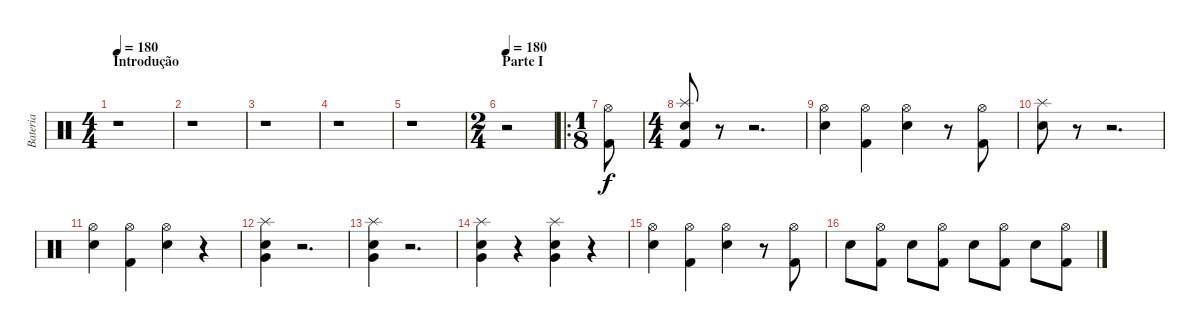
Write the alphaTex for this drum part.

\track ("Bateria" "Bateria") {instrument percussion}
\staff {score}
\articulation defaults
\ts (4 4)
\section ("" "Introdução")
\tempo 180
\tempo 90
\tempo 180
\clef neutral
\ks c
r.1{dy f} |
r.1 |
r.1 |
r.1 |
r.1 |
\ts (2 4)
\section ("" "Parte I")
\tempo 180
r.2 |
\ro
\ts (1 8)
("Hi-Hat (open)" "Kick (hit) 2").8 |
\ts (4 4)
("Splash (hit)" "Electric Snare (hit)" "Kick (hit) 2").8 r.8 r.2{d} |
("Hi-Hat (open)" "Electric Snare (hit)").4 ("Hi-Hat (open)" "Kick (hit) 2").4 ("Hi-Hat (open)" "Electric Snare (hit)").4 r.8 ("Hi-Hat (open)" "Kick (hit) 2").8 |
("Splash (hit)" "Electric Snare (hit)").8 r.8 r.2{d} |
("Hi-Hat (open)" "Electric Snare (hit)").4 ("Hi-Hat (open)" "Kick (hit) 2").4 ("Hi-Hat (open)" "Electric Snare (hit)").4 r.4 |
("Splash (hit)" "Electric Snare (hit)" "Very Low Tom (hit)").4 r.2{d} |
("Splash (hit)" "Electric Snare (hit)" "Very Low Tom (hit)").4 r.2{d} |
("Splash (hit)" "Electric Snare (hit)" "Very Low Tom (hit)").4 r.4 ("Splash (hit)" "Electric Snare (hit)" "Very Low Tom (hit)").4 r.4 |
("Hi-Hat (open)" "Electric Snare (hit)").4 ("Hi-Hat (open)" "Kick (hit) 2").4 ("Hi-Hat (open)" "Electric Snare (hit)").4 r.8 ("Hi-Hat (open)" "Kick (hit) 2").8 |
"Electric Snare (hit)".8 ("Hi-Hat (open)" "Kick (hit) 2").8 "Electric Snare (hit)".8 ("Hi-Hat (open)" "Kick (hit) 2").8 "Electric Snare (hit)".8 ("Hi-Hat (open)" "Kick (hit) 2").8 "Electric Snare (hit)".8 ("Hi-Hat (open)" "Kick (hit) 2").8
